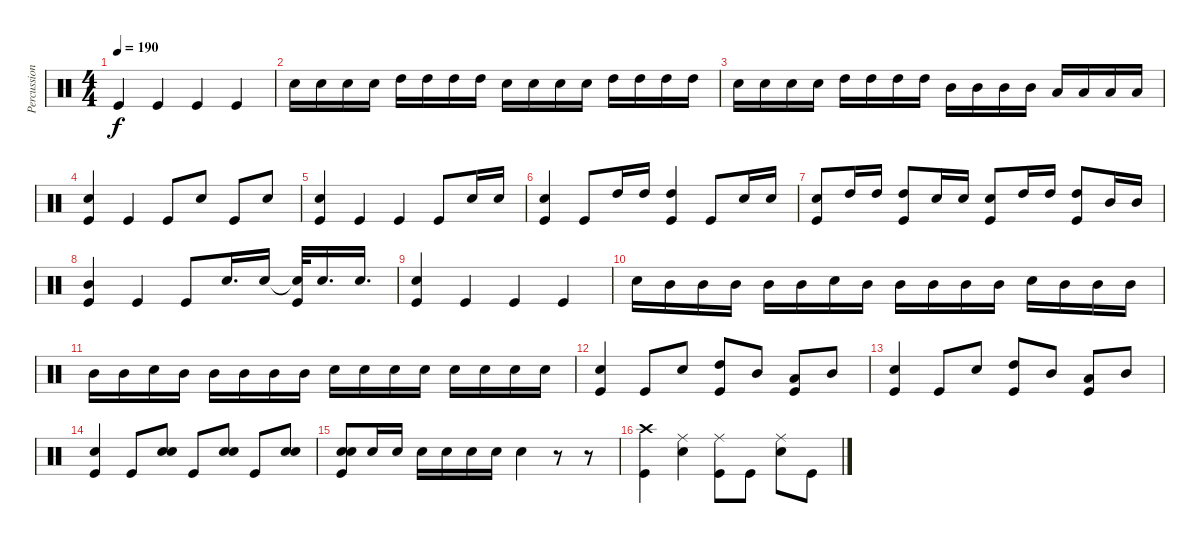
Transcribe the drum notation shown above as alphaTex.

\track ("Percussion" "Percussion") {mute instrument percussion}
\staff {score}
\articulation defaults
\ts (4 4)
\tempo 190
\clef neutral
\ks c "Kick (hit)".4{dy f} "Kick (hit)".4 "Kick (hit)".4 "Kick (hit)".4
|
"Snare (hit) 2".16 "Snare (hit) 2".16 "Snare (hit) 2".16 "Snare (hit) 2".16 "High Tom (hit)".16 "High Tom (hit)".16 "High Tom (hit)".16 "High Tom (hit)".16 "Snare (hit) 2".16 "Snare (hit) 2".16 "Snare (hit) 2".16 "Snare (hit) 2".16 "High Tom (hit)".16 "High Tom (hit)".16 "High Tom (hit)".16 "High Tom (hit)".16 |
"Snare (hit) 2".16 "Snare (hit) 2".16 "Snare (hit) 2".16 "Snare (hit) 2".16 "High Tom (hit)".16 "High Tom (hit)".16 "High Tom (hit)".16 "High Tom (hit)".16 "Mid Tom (hit)".16 "Mid Tom (hit)".16 "Mid Tom (hit)".16 "Mid Tom (hit)".16 "Low Tom (hit)".16 "Low Tom (hit)".16 "Low Tom (hit)".16 "Low Tom (hit)".16 |
("Snare (hit) 2" "Kick (hit)").4 "Kick (hit)".4 "Kick (hit)".8 "Snare (hit) 2".8 "Kick (hit)".8 "Snare (hit) 2".8 |
("Snare (hit) 2" "Kick (hit)").4 "Kick (hit)".4 "Kick (hit)".4 "Kick (hit)".8 "Snare (hit) 2".16 "Snare (hit) 2".16 |
("Snare (hit) 2" "Kick (hit)").4 "Kick (hit)".8 "High Tom (hit)".16 "High Tom (hit)".16 ("High Tom (hit)" "Kick (hit)").4 "Kick (hit)".8 "Snare (hit) 2".16 "Snare (hit) 2".16 |
("Snare (hit) 2" "Kick (hit)").8 "High Tom (hit)".16 "High Tom (hit)".16 ("High Tom (hit)" "Kick (hit)").8 "Snare (hit) 2".16 "Snare (hit) 2".16 ("Snare (hit) 2" "Kick (hit)").8 "High Tom (hit)".16 "High Tom (hit)".16 ("High Tom (hit)" "Kick (hit)").8 "Mid Tom (hit)".16 "Mid Tom (hit)".16 |
("Mid Tom (hit)" "Kick (hit)").4 "Kick (hit)".4 "Kick (hit)".8 "Snare (hit) 2".16{d} "Snare (hit) 2".16 ("Snare (hit) 2"{t} "Kick (hit)").32 "Snare (hit) 2".16{d} "Snare (hit) 2".16{d} |
("Snare (hit) 2" "Kick (hit)").4 "Kick (hit)".4 "Kick (hit)".4 "Kick (hit)".4 |
"Snare (hit) 2".16 "Mid Tom (hit)".16 "Mid Tom (hit)".16 "Mid Tom (hit)".16 "Mid Tom (hit)".16 "Mid Tom (hit)".16 "Snare (hit) 2".16 "Mid Tom (hit)".16 "Mid Tom (hit)".16 "Mid Tom (hit)".16 "Mid Tom (hit)".16 "Mid Tom (hit)".16 "Snare (hit) 2".16 "Mid Tom (hit)".16 "Mid Tom (hit)".16 "Mid Tom (hit)".16 |
"Mid Tom (hit)".16 "Mid Tom (hit)".16 "Snare (hit) 2".16 "Mid Tom (hit)".16 "Mid Tom (hit)".16 "Mid Tom (hit)".16 "Mid Tom (hit)".16 "Mid Tom (hit)".16 "Snare (hit) 2".16 "Snare (hit) 2".16 "Snare (hit) 2".16 "Snare (hit) 2".16 "Snare (hit) 2".16 "Snare (hit) 2".16 "Snare (hit) 2".16 "Snare (hit) 2".16 |
("Snare (hit) 2" "Kick (hit)").4 "Kick (hit)".8 "Snare (hit) 2".8 ("High Tom (hit)" "Kick (hit)").8 "Mid Tom (hit)".8 ("Low Tom (hit)" "Kick (hit)").8 "Mid Tom (hit)".8 |
("Snare (hit) 2" "Kick (hit)").4 "Kick (hit)".8 "Snare (hit) 2".8 ("High Tom (hit)" "Kick (hit)").8 "Mid Tom (hit)".8 ("Low Tom (hit)" "Kick (hit)").8 "Mid Tom (hit)".8 |
("Snare (hit) 2" "Kick (hit)").4 "Kick (hit)".8 ("Snare (hit) 2" "Snare (hit) 2").8 "Kick (hit)".8 ("Snare (hit) 2" "Snare (hit) 2").8 "Kick (hit)".8 ("Snare (hit) 2" "Snare (hit) 2").8 |
("Snare (hit) 2" "Snare (hit) 2" "Kick (hit)").8 "Snare (hit) 2".16 "Snare (hit) 2".16 "Snare (hit) 2".16 "Snare (hit) 2".16 "Snare (hit) 2".16 "Snare (hit) 2".16 "Snare (hit) 2".4 r.8 r.8 |
("Crash high (hit)" "Kick (hit)").4 ("Ride (middle)" "Snare (hit) 2").4 ("Ride (middle)" "Kick (hit)").8 "Kick (hit)".8 ("Ride (middle)" "Snare (hit) 2").8 "Kick (hit)".8
